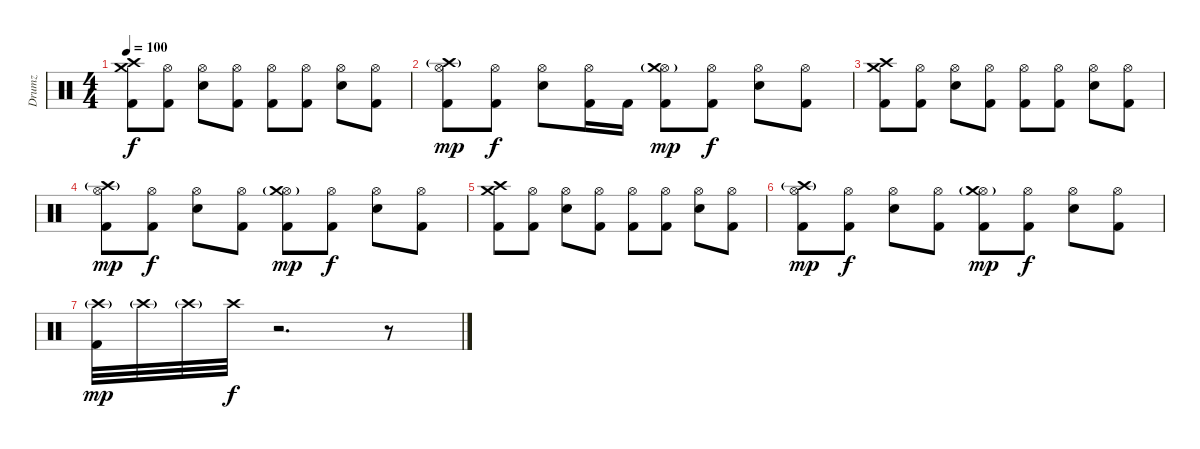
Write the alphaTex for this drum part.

\track ("Drumz" "Drumz") {instrument percussion}
\staff {score}
\articulation defaults
\ts (4 4)
\tempo 100
\clef neutral
\ks c
("Crash high (hit)" "Crash medium (hit)" "Kick (hit) 2").8{dy f} ("Hi-Hat (open)" "Kick (hit) 2").8 ("Hi-Hat (open)" "Electric Snare (hit)").8 ("Hi-Hat (open)" "Kick (hit) 2").8 ("Hi-Hat (open)" "Kick (hit) 2").8 ("Hi-Hat (open)" "Kick (hit) 2").8 ("Hi-Hat (open)" "Electric Snare (hit)").8 ("Hi-Hat (open)" "Kick (hit) 2").8 |
("Hi-Hat (open)" "Crash high (hit)"{g} "Kick (hit) 2").8{dy mp} ("Hi-Hat (open)" "Kick (hit) 2").8{dy f} ("Hi-Hat (open)" "Electric Snare (hit)").8 ("Hi-Hat (open)" "Kick (hit) 2").16 "Kick (hit) 2".16 ("Hi-Hat (open)" "Crash medium (hit)"{g} "Kick (hit) 2").8{dy mp} ("Hi-Hat (open)" "Kick (hit) 2").8{dy f} ("Hi-Hat (open)" "Electric Snare (hit)").8 ("Hi-Hat (open)" "Kick (hit) 2").8 |
("Crash high (hit)" "Crash medium (hit)" "Kick (hit) 2").8 ("Hi-Hat (open)" "Kick (hit) 2").8 ("Hi-Hat (open)" "Electric Snare (hit)").8 ("Hi-Hat (open)" "Kick (hit) 2").8 ("Hi-Hat (open)" "Kick (hit) 2").8 ("Hi-Hat (open)" "Kick (hit) 2").8 ("Hi-Hat (open)" "Electric Snare (hit)").8 ("Hi-Hat (open)" "Kick (hit) 2").8 |
("Hi-Hat (open)" "Crash high (hit)"{g} "Kick (hit) 2").8{dy mp} ("Hi-Hat (open)" "Kick (hit) 2").8{dy f} ("Hi-Hat (open)" "Electric Snare (hit)").8 ("Hi-Hat (open)" "Kick (hit) 2").8 ("Hi-Hat (open)" "Crash medium (hit)"{g} "Kick (hit) 2").8{dy mp} ("Hi-Hat (open)" "Kick (hit) 2").8{dy f} ("Hi-Hat (open)" "Electric Snare (hit)").8 ("Hi-Hat (open)" "Kick (hit) 2").8 |
("Crash high (hit)" "Crash medium (hit)" "Kick (hit) 2").8 ("Hi-Hat (open)" "Kick (hit) 2").8 ("Hi-Hat (open)" "Electric Snare (hit)").8 ("Hi-Hat (open)" "Kick (hit) 2").8 ("Hi-Hat (open)" "Kick (hit) 2").8 ("Hi-Hat (open)" "Kick (hit) 2").8 ("Hi-Hat (open)" "Electric Snare (hit)").8 ("Hi-Hat (open)" "Kick (hit) 2").8 |
("Hi-Hat (open)" "Crash high (hit)"{g} "Kick (hit) 2").8{dy mp} ("Hi-Hat (open)" "Kick (hit) 2").8{dy f} ("Hi-Hat (open)" "Electric Snare (hit)").8 ("Hi-Hat (open)" "Kick (hit) 2").8 ("Hi-Hat (open)" "Crash medium (hit)"{g} "Kick (hit) 2").8{dy mp} ("Hi-Hat (open)" "Kick (hit) 2").8{dy f} ("Hi-Hat (open)" "Electric Snare (hit)").8 ("Hi-Hat (open)" "Kick (hit) 2").8 |
("Kick (hit) 2" "Crash high (hit)"{g}).32{dy mp} "Crash high (hit)"{g}.32 "Crash high (hit)"{g}.32 "Crash high (hit)".32{dy f} r.2{d} r.8
